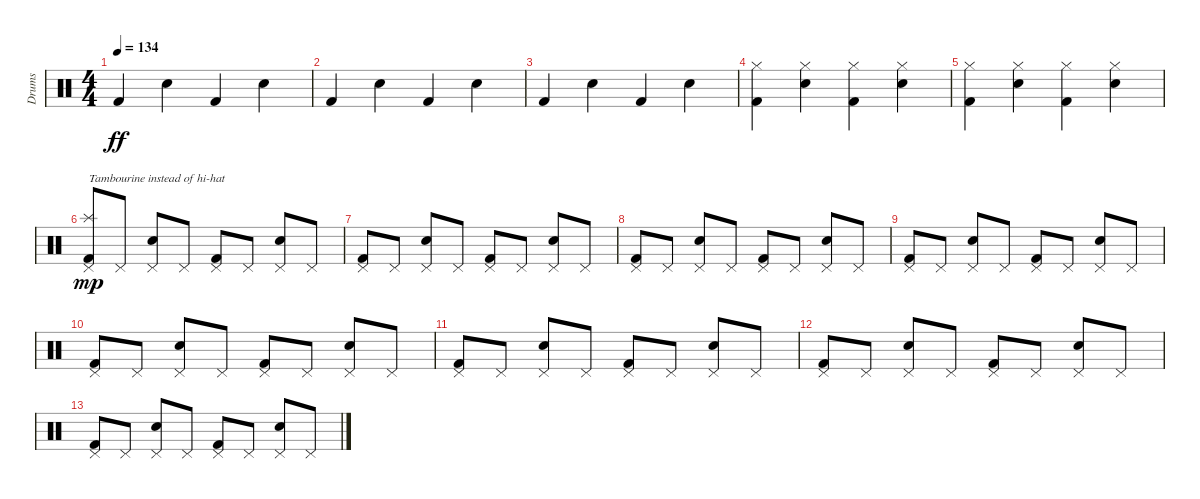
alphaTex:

\track ("Drums" "Drums") {instrument percussion}
\staff {score}
\articulation defaults
\ts (4 4)
\tempo 134
\clef neutral
\ks c "Kick (hit) 2".4{dy ff} "Electric Snare (hit)".4 "Kick (hit) 2".4 "Electric Snare (hit)".4
|
"Kick (hit) 2".4 "Electric Snare (hit)".4 "Kick (hit) 2".4 "Electric Snare (hit)".4 |
"Kick (hit) 2".4 "Electric Snare (hit)".4 "Kick (hit) 2".4 "Electric Snare (hit)".4 |
("Hi-Hat (closed)" "Kick (hit) 2").4 ("Hi-Hat (closed)" "Electric Snare (hit)").4 ("Hi-Hat (closed)" "Kick (hit) 2").4 ("Hi-Hat (closed)" "Electric Snare (hit)").4 |
("Hi-Hat (closed)" "Kick (hit) 2").4 ("Hi-Hat (closed)" "Electric Snare (hit)").4 ("Hi-Hat (closed)" "Kick (hit) 2").4 ("Hi-Hat (closed)" "Electric Snare (hit)").4 |
("Splash (hit)" "Pedal Hi-Hat (hit)" "Kick (hit) 2").8{txt "Tambourine instead of hi-hat" dy mp} "Pedal Hi-Hat (hit)".8 ("Pedal Hi-Hat (hit)" "Electric Snare (hit)").8 "Pedal Hi-Hat (hit)".8 ("Pedal Hi-Hat (hit)" "Kick (hit) 2").8 "Pedal Hi-Hat (hit)".8 ("Pedal Hi-Hat (hit)" "Electric Snare (hit)").8 "Pedal Hi-Hat (hit)".8 |
("Pedal Hi-Hat (hit)" "Kick (hit) 2").8 "Pedal Hi-Hat (hit)".8 ("Pedal Hi-Hat (hit)" "Electric Snare (hit)").8 "Pedal Hi-Hat (hit)".8 ("Pedal Hi-Hat (hit)" "Kick (hit) 2").8 "Pedal Hi-Hat (hit)".8 ("Pedal Hi-Hat (hit)" "Electric Snare (hit)").8 "Pedal Hi-Hat (hit)".8 |
("Pedal Hi-Hat (hit)" "Kick (hit) 2").8 "Pedal Hi-Hat (hit)".8 ("Pedal Hi-Hat (hit)" "Electric Snare (hit)").8 "Pedal Hi-Hat (hit)".8 ("Pedal Hi-Hat (hit)" "Kick (hit) 2").8 "Pedal Hi-Hat (hit)".8 ("Pedal Hi-Hat (hit)" "Electric Snare (hit)").8 "Pedal Hi-Hat (hit)".8 |
("Pedal Hi-Hat (hit)" "Kick (hit) 2").8 "Pedal Hi-Hat (hit)".8 ("Pedal Hi-Hat (hit)" "Electric Snare (hit)").8 "Pedal Hi-Hat (hit)".8 ("Pedal Hi-Hat (hit)" "Kick (hit) 2").8 "Pedal Hi-Hat (hit)".8 ("Pedal Hi-Hat (hit)" "Electric Snare (hit)").8 "Pedal Hi-Hat (hit)".8 |
("Pedal Hi-Hat (hit)" "Kick (hit) 2").8 "Pedal Hi-Hat (hit)".8 ("Pedal Hi-Hat (hit)" "Electric Snare (hit)").8 "Pedal Hi-Hat (hit)".8 ("Pedal Hi-Hat (hit)" "Kick (hit) 2").8 "Pedal Hi-Hat (hit)".8 ("Pedal Hi-Hat (hit)" "Electric Snare (hit)").8 "Pedal Hi-Hat (hit)".8 |
("Pedal Hi-Hat (hit)" "Kick (hit) 2").8 "Pedal Hi-Hat (hit)".8 ("Pedal Hi-Hat (hit)" "Electric Snare (hit)").8 "Pedal Hi-Hat (hit)".8 ("Pedal Hi-Hat (hit)" "Kick (hit) 2").8 "Pedal Hi-Hat (hit)".8 ("Pedal Hi-Hat (hit)" "Electric Snare (hit)").8 "Pedal Hi-Hat (hit)".8 |
("Pedal Hi-Hat (hit)" "Kick (hit) 2").8 "Pedal Hi-Hat (hit)".8 ("Pedal Hi-Hat (hit)" "Electric Snare (hit)").8 "Pedal Hi-Hat (hit)".8 ("Pedal Hi-Hat (hit)" "Kick (hit) 2").8 "Pedal Hi-Hat (hit)".8 ("Pedal Hi-Hat (hit)" "Electric Snare (hit)").8 "Pedal Hi-Hat (hit)".8 |
("Pedal Hi-Hat (hit)" "Kick (hit) 2").8 "Pedal Hi-Hat (hit)".8 ("Pedal Hi-Hat (hit)" "Electric Snare (hit)").8 "Pedal Hi-Hat (hit)".8 ("Pedal Hi-Hat (hit)" "Kick (hit) 2").8 "Pedal Hi-Hat (hit)".8 ("Pedal Hi-Hat (hit)" "Electric Snare (hit)").8 "Pedal Hi-Hat (hit)".8
